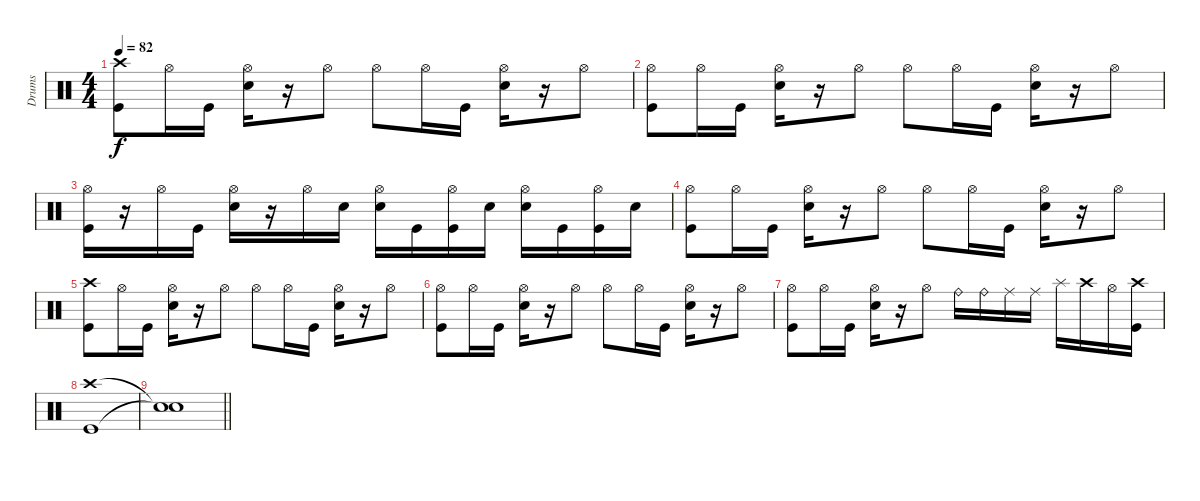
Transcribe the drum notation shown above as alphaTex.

\track ("Drums" "Drums") {instrument percussion}
\staff {score}
\articulation defaults
\ts (4 4)
\tempo 82
\clef neutral
\ks c
("Crash high (hit)" "Kick (hit)").8{dy f} "Hi-Hat (open)".16 "Kick (hit)".16 ("Hi-Hat (open)" "Snare (hit) 2").16 r.16 "Hi-Hat (open)".8 "Hi-Hat (open)".8 "Hi-Hat (open)".16 "Kick (hit)".16 ("Hi-Hat (open)" "Snare (hit) 2").16 r.16 "Hi-Hat (open)".8 |
("Hi-Hat (open)" "Kick (hit)").8 "Hi-Hat (open)".16 "Kick (hit)".16 ("Hi-Hat (open)" "Snare (hit) 2").16 r.16 "Hi-Hat (open)".8 "Hi-Hat (open)".8 "Hi-Hat (open)".16 "Kick (hit)".16 ("Hi-Hat (open)" "Snare (hit) 2").16 r.16 "Hi-Hat (open)".8 |
("Hi-Hat (open)" "Kick (hit)").16 r.16 "Hi-Hat (open)".16 "Kick (hit)".16 ("Hi-Hat (open)" "Snare (hit) 2").16 r.16 "Hi-Hat (open)".16 "Snare (hit) 2".16 ("Hi-Hat (open)" "Snare (hit) 2").16 "Kick (hit)".16 ("Hi-Hat (open)" "Kick (hit)").16 "Snare (hit) 2".16 ("Hi-Hat (open)" "Snare (hit) 2").16 "Kick (hit)".16 ("Hi-Hat (open)" "Kick (hit)").16 "Snare (hit) 2".16 |
("Hi-Hat (open)" "Kick (hit)").8 "Hi-Hat (open)".16 "Kick (hit)".16 ("Hi-Hat (open)" "Snare (hit) 2").16 r.16 "Hi-Hat (open)".8 "Hi-Hat (open)".8 "Hi-Hat (open)".16 "Kick (hit)".16 ("Hi-Hat (open)" "Snare (hit) 2").16 r.16 "Hi-Hat (open)".8 |
("Crash high (hit)" "Kick (hit)").8 "Hi-Hat (open)".16 "Kick (hit)".16 ("Hi-Hat (open)" "Snare (hit) 2").16 r.16 "Hi-Hat (open)".8 "Hi-Hat (open)".8 "Hi-Hat (open)".16 "Kick (hit)".16 ("Hi-Hat (open)" "Snare (hit) 2").16 r.16 "Hi-Hat (open)".8 |
("Hi-Hat (open)" "Kick (hit)").8 "Hi-Hat (open)".16 "Kick (hit)".16 ("Hi-Hat (open)" "Snare (hit) 2").16 r.16 "Hi-Hat (open)".8 "Hi-Hat (open)".8 "Hi-Hat (open)".16 "Kick (hit)".16 ("Hi-Hat (open)" "Snare (hit) 2").16 r.16 "Hi-Hat (open)".8 |
("Hi-Hat (open)" "Kick (hit)").8 "Hi-Hat (open)".16 "Kick (hit)".16 ("Hi-Hat (open)" "Snare (hit) 2").16 r.16 "Hi-Hat (open)".8 "Ride (bell)".16 "Ride (bell)".16 "Ride (middle)".16 "Ride (middle)".16 "Splash (hit)".16 "Crash high (hit)".16 "Hi-Hat (open)".16 ("Crash high (hit)" "Kick (hit)").16 |
("Crash high (hit)" "Kick (hit)").1 |
\barLineRight lightlight
("Snare (hit)"{t} "Snare (hit)"{t}).1
